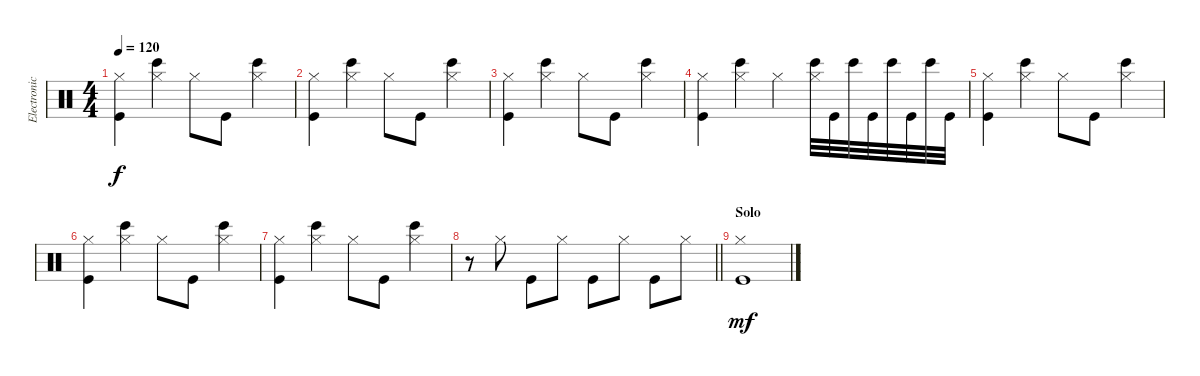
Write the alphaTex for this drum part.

\track ("Electronic Drums" "Electronic") {instrument percussion}
\staff {score}
\articulation defaults
\ts (4 4)
\tempo 120
\clef neutral
\ks c
("Hi-Hat (closed)" "Kick (hit)").4{dy f} ("Hi-Hat (closed)" "Bongo High (hit)").4 "Hi-Hat (closed)".8 "Kick (hit)".8 ("Hi-Hat (closed)" "Bongo High (hit)").4 |
("Hi-Hat (closed)" "Kick (hit)").4 ("Hi-Hat (closed)" "Bongo High (hit)").4 "Hi-Hat (closed)".8 "Kick (hit)".8 ("Hi-Hat (closed)" "Bongo High (hit)").4 |
("Hi-Hat (closed)" "Kick (hit)").4 ("Hi-Hat (closed)" "Bongo High (hit)").4 "Hi-Hat (closed)".8 "Kick (hit)".8 ("Hi-Hat (closed)" "Bongo High (hit)").4 |
("Hi-Hat (closed)" "Kick (hit)").4 ("Hi-Hat (closed)" "Bongo High (hit)").4 "Hi-Hat (closed)".4 ("Hi-Hat (closed)" "Bongo High (hit)").32 "Kick (hit)".32 "Bongo High (hit)".32 "Kick (hit)".32 "Bongo High (hit)".32 "Kick (hit)".32 "Bongo High (hit)".32 "Kick (hit)".32 |
("Hi-Hat (closed)" "Kick (hit)").4 ("Hi-Hat (closed)" "Bongo High (hit)").4 "Hi-Hat (closed)".8 "Kick (hit)".8 ("Hi-Hat (closed)" "Bongo High (hit)").4 |
("Hi-Hat (closed)" "Kick (hit)").4 ("Hi-Hat (closed)" "Bongo High (hit)").4 "Hi-Hat (closed)".8 "Kick (hit)".8 ("Hi-Hat (closed)" "Bongo High (hit)").4 |
("Hi-Hat (closed)" "Kick (hit)").4 ("Hi-Hat (closed)" "Bongo High (hit)").4 "Hi-Hat (closed)".8 "Kick (hit)".8 ("Hi-Hat (closed)" "Bongo High (hit)").4 |
\barLineRight lightlight
r.8 "Hi-Hat (closed)".8 "Kick (hit)".8 "Hi-Hat (closed)".8 "Kick (hit)".8 "Hi-Hat (closed)".8 "Kick (hit)".8 "Hi-Hat (closed)".8 |
\section ("" "Solo")
("Hi-Hat (closed)" "Kick (hit)").1{dy mf volume 13}
